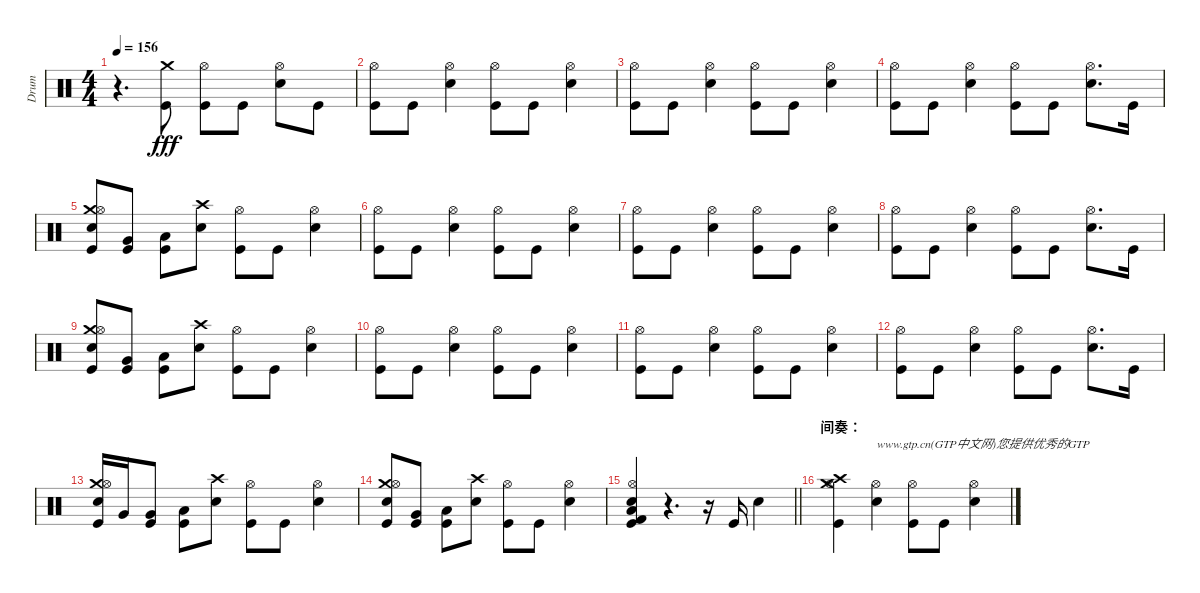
\track ("Drum" "Drum") {instrument percussion}
\staff {score}
\articulation defaults
\ts (4 4)
\tempo 156
\clef neutral
\ks c
r.4{d dy fff} ("Kick (hit)" "Crash medium (hit)").8 ("Kick (hit)" "Hi-Hat (open)").8 "Kick (hit)".8 ("Metronome (bell)" "Hi-Hat (open)").8 "Kick (hit)".8 |
("Hi-Hat (open)" "Kick (hit)").8 "Kick (hit)".8 ("Metronome (bell)" "Hi-Hat (open)").4 ("Kick (hit)" "Hi-Hat (open)").8 "Kick (hit)".8 ("Hi-Hat (open)" "Metronome (bell)").4 |
("Hi-Hat (open)" "Kick (hit)").8 "Kick (hit)".8 ("Hi-Hat (open)" "Metronome (bell)").4 ("Hi-Hat (open)" "Kick (hit)").8 "Kick (hit)".8 ("Hi-Hat (open)" "Metronome (bell)").4 |
("Hi-Hat (open)" "Kick (hit)").8 "Kick (hit)".8 ("Hi-Hat (open)" "Metronome (bell)").4 ("Hi-Hat (open)" "Kick (hit)").8 "Kick (hit)".8 ("Metronome (bell)" "Hi-Hat (open)").8{d} "Kick (hit)".16 |
("Crash medium (hit)" "Metronome (bell)" "Kick (hit)" "Hi-Hat (open)").8 ("Very Low Tom (hit)" "Kick (hit)").8 ("Low Floor Tom (hit)" "Kick (hit)").8 ("Metronome (bell)" "Crash high (hit)").8 ("Kick (hit)" "Hi-Hat (open)").8 "Kick (hit)".8 ("Hi-Hat (open)" "Metronome (bell)").4 |
("Hi-Hat (open)" "Kick (hit)").8 "Kick (hit)".8 ("Metronome (bell)" "Hi-Hat (open)").4 ("Kick (hit)" "Hi-Hat (open)").8 "Kick (hit)".8 ("Hi-Hat (open)" "Metronome (bell)").4 |
("Hi-Hat (open)" "Kick (hit)").8 "Kick (hit)".8 ("Hi-Hat (open)" "Metronome (bell)").4 ("Hi-Hat (open)" "Kick (hit)").8 "Kick (hit)".8 ("Hi-Hat (open)" "Metronome (bell)").4 |
("Hi-Hat (open)" "Kick (hit)").8 "Kick (hit)".8 ("Hi-Hat (open)" "Metronome (bell)").4 ("Hi-Hat (open)" "Kick (hit)").8 "Kick (hit)".8 ("Metronome (bell)" "Hi-Hat (open)").8{d} "Kick (hit)".16 |
("Crash medium (hit)" "Metronome (bell)" "Kick (hit)" "Hi-Hat (open)").8 ("Very Low Tom (hit)" "Kick (hit)").8 ("Low Floor Tom (hit)" "Kick (hit)").8 ("Metronome (bell)" "Crash high (hit)").8 ("Kick (hit)" "Hi-Hat (open)").8 "Kick (hit)".8 ("Hi-Hat (open)" "Metronome (bell)").4 |
("Hi-Hat (open)" "Kick (hit)").8 "Kick (hit)".8 ("Metronome (bell)" "Hi-Hat (open)").4 ("Kick (hit)" "Hi-Hat (open)").8 "Kick (hit)".8 ("Hi-Hat (open)" "Metronome (bell)").4 |
("Hi-Hat (open)" "Kick (hit)").8 "Kick (hit)".8 ("Hi-Hat (open)" "Metronome (bell)").4 ("Hi-Hat (open)" "Kick (hit)").8 "Kick (hit)".8 ("Hi-Hat (open)" "Metronome (bell)").4 |
("Hi-Hat (open)" "Kick (hit)").8 "Kick (hit)".8 ("Hi-Hat (open)" "Metronome (bell)").4 ("Hi-Hat (open)" "Kick (hit)").8 "Kick (hit)".8 ("Metronome (bell)" "Hi-Hat (open)").8{d} "Kick (hit)".16 |
("Crash medium (hit)" "Metronome (bell)" "Kick (hit)" "Hi-Hat (open)").16 "Very Low Tom (hit)".16 ("Very Low Tom (hit)" "Kick (hit)").8 ("Low Floor Tom (hit)" "Kick (hit)").8 ("Metronome (bell)" "Crash high (hit)").8 ("Kick (hit)" "Hi-Hat (open)").8 "Kick (hit)".8 ("Hi-Hat (open)" "Metronome (bell)").4 |
("Crash medium (hit)" "Metronome (bell)" "Kick (hit)" "Hi-Hat (open)").8 ("Very Low Tom (hit)" "Kick (hit)").8 ("Low Floor Tom (hit)" "Kick (hit)").8 ("Metronome (bell)" "Crash high (hit)").8 ("Kick (hit)" "Hi-Hat (open)").8 "Kick (hit)".8 ("Hi-Hat (open)" "Metronome (bell)").4 |
\barLineRight lightlight
("Metronome (bell)" "Kick (hit) 2" "Kick (hit)" "Hi-Hat (open)" "Low Floor Tom (hit)").4 r.4{d} r.16 "Kick (hit)".16 "Metronome (bell)".4 |
\section ("" "间奏：")
("Crash medium (hit)" "Hi-Hat (open)" "Crash high (hit)" "Kick (hit)").4 ("Metronome (bell)" "Hi-Hat (open)").4{txt "www.gtp.cn(GTP中文网)您提供优秀的GTP"} ("Hi-Hat (open)" "Kick (hit)").8 "Kick (hit)".8 ("Metronome (bell)" "Hi-Hat (open)").4
